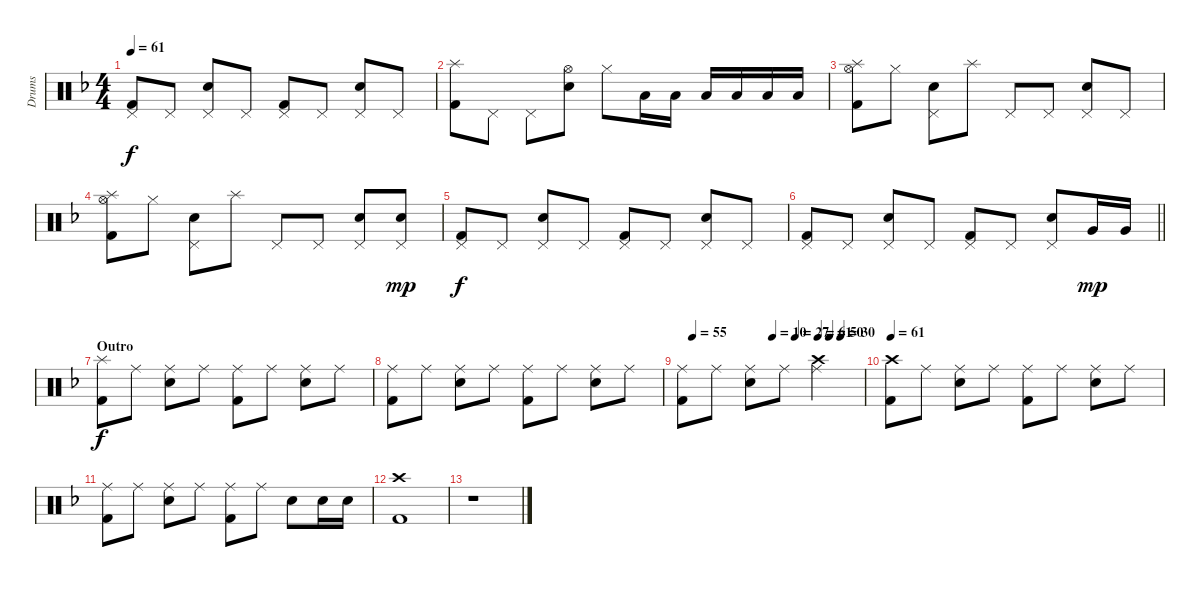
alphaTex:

\track ("Drums" "Drums") {instrument percussion}
\staff {score}
\articulation defaults
\ts (4 4)
\tempo 61
\clef neutral
\ks f
("Pedal Hi-Hat (hit)" "Kick (hit) 2").8{dy f} "Pedal Hi-Hat (hit)".8 ("Pedal Hi-Hat (hit)" "Snare (hit) 2").8 "Pedal Hi-Hat (hit)".8 ("Pedal Hi-Hat (hit)" "Kick (hit) 2").8 "Pedal Hi-Hat (hit)".8 ("Pedal Hi-Hat (hit)" "Snare (hit) 2").8 "Pedal Hi-Hat (hit)".8 |
("Splash (hit)" "Kick (hit) 2").8 "Pedal Hi-Hat (hit)".8 "Pedal Hi-Hat (hit)".8 ("Hi-Hat (open)" "Snare (hit) 2").8 "Hi-Hat (closed)".8 "Low Tom (hit)".16 "Low Tom (hit)".16 "Low Tom (hit)".16 "Low Tom (hit)".16 "Low Tom (hit)".16 "Low Tom (hit)".16 |
("Splash (hit)" "Hi-Hat (open)" "Kick (hit) 2").8 "Hi-Hat (closed)".8 ("Pedal Hi-Hat (hit)" "Snare (hit) 2").8 "Splash (hit)".8 "Pedal Hi-Hat (hit)".8 "Pedal Hi-Hat (hit)".8 ("Pedal Hi-Hat (hit)" "Snare (hit) 2").8 "Pedal Hi-Hat (hit)".8 |
("Splash (hit)" "Hi-Hat (open)" "Kick (hit) 2").8 "Hi-Hat (closed)".8 ("Pedal Hi-Hat (hit)" "Snare (hit) 2").8 "Splash (hit)".8 "Pedal Hi-Hat (hit)".8 "Pedal Hi-Hat (hit)".8 ("Pedal Hi-Hat (hit)" "Snare (hit) 2").8 ("Pedal Hi-Hat (hit)" "Snare (hit) 2").8{dy mp} |
("Pedal Hi-Hat (hit)" "Kick (hit) 2").8{dy f} "Pedal Hi-Hat (hit)".8 ("Pedal Hi-Hat (hit)" "Snare (hit) 2").8 "Pedal Hi-Hat (hit)".8 ("Pedal Hi-Hat (hit)" "Kick (hit) 2").8 "Pedal Hi-Hat (hit)".8 ("Pedal Hi-Hat (hit)" "Snare (hit) 2").8 "Pedal Hi-Hat (hit)".8 |
\barLineRight lightlight
("Pedal Hi-Hat (hit)" "Kick (hit) 2").8 "Pedal Hi-Hat (hit)".8 ("Pedal Hi-Hat (hit)" "Snare (hit) 2").8 "Pedal Hi-Hat (hit)".8 ("Pedal Hi-Hat (hit)" "Kick (hit) 2").8 "Pedal Hi-Hat (hit)".8 ("Pedal Hi-Hat (hit)" "Snare (hit) 2").8 "Very Low Tom (hit)".16{dy mp} "Very Low Tom (hit)".16 |
\section ("" "Outro")
("Splash (hit)" "Kick (hit) 2").8{dy f} "Ride (middle)".8 ("Ride (middle)" "Snare (hit) 2").8 "Ride (middle)".8 ("Ride (middle)" "Kick (hit) 2").8 "Ride (middle)".8 ("Ride (middle)" "Snare (hit) 2").8 "Ride (middle)".8 |
("Ride (middle)" "Kick (hit) 2").8 "Ride (middle)".8 ("Ride (middle)" "Snare (hit) 2").8 "Ride (middle)".8 ("Ride (middle)" "Kick (hit) 2").8 "Ride (middle)".8 ("Ride (middle)" "Snare (hit) 2").8 "Ride (middle)".8 |
\tempo (55 0.0625)
\tempo (10 0.5)
\tempo (27 0.625)
\tempo (61 0.75)
\tempo (50 0.8125)
\tempo (30 0.875)
("Ride (middle)" "Kick (hit) 2").8 "Ride (middle)".8 ("Ride (middle)" "Snare (hit) 2").8 "Ride (middle)".8 ("Crash high (hit)" "Ride (middle)").2 |
\tempo 61
("Crash high (hit)" "Kick (hit) 2").8 "Ride (middle)".8 ("Ride (middle)" "Snare (hit) 2").8 "Ride (middle)".8 ("Ride (middle)" "Kick (hit) 2").8 "Ride (middle)".8 ("Ride (middle)" "Snare (hit) 2").8 "Ride (middle)".8 |
("Ride (middle)" "Kick (hit) 2").8 "Ride (middle)".8 ("Ride (middle)" "Snare (hit) 2").8 "Ride (middle)".8 ("Ride (middle)" "Kick (hit) 2").8 "Ride (middle)".8 "Snare (hit) 2".8 "Snare (hit) 2".16 "Snare (hit) 2".16 |
("Crash high (hit)" "Kick (hit) 2").1 |
r.1
